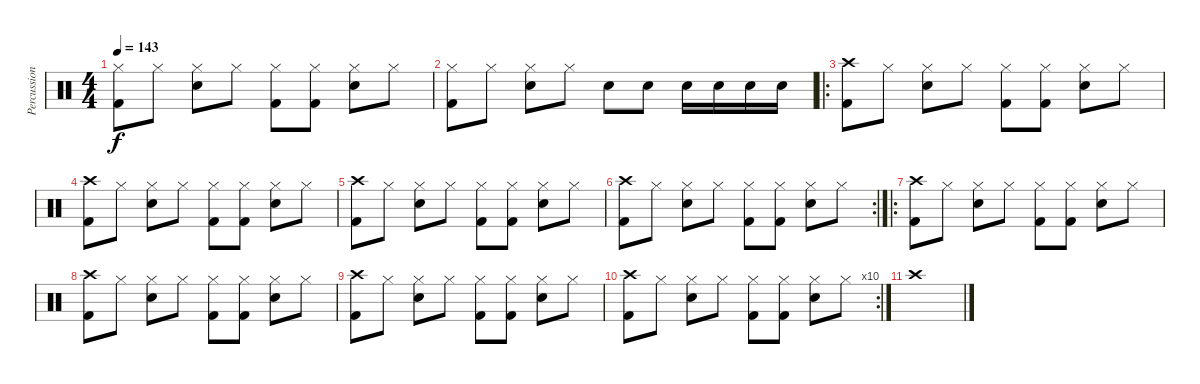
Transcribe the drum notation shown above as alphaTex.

\track ("Percussion" "Percussion") {instrument percussion}
\staff {score}
\articulation defaults
\ts (4 4)
\tempo 143
\clef neutral
\ks c
("Hi-Hat (closed)" "Kick (hit) 2").8{dy f} "Hi-Hat (closed)".8 ("Hi-Hat (closed)" "Snare (hit) 2").8 "Hi-Hat (closed)".8 ("Hi-Hat (closed)" "Kick (hit) 2").8 ("Hi-Hat (closed)" "Kick (hit) 2").8 ("Hi-Hat (closed)" "Snare (hit) 2").8 "Hi-Hat (closed)".8 |
("Hi-Hat (closed)" "Kick (hit) 2").8 "Hi-Hat (closed)".8 ("Hi-Hat (closed)" "Snare (hit) 2").8 "Hi-Hat (closed)".8 "Snare (hit) 2".8 "Snare (hit) 2".8 "Snare (hit) 2".16 "Snare (hit) 2".16 "Snare (hit) 2".16 "Snare (hit) 2".16 |
\ro
("Crash high (hit)" "Kick (hit) 2").8 "Hi-Hat (closed)".8 ("Hi-Hat (closed)" "Snare (hit) 2").8 "Hi-Hat (closed)".8 ("Hi-Hat (closed)" "Kick (hit) 2").8 ("Hi-Hat (closed)" "Kick (hit) 2").8 ("Hi-Hat (closed)" "Snare (hit) 2").8 "Hi-Hat (closed)".8 |
("Crash high (hit)" "Kick (hit) 2").8 "Hi-Hat (closed)".8 ("Hi-Hat (closed)" "Snare (hit) 2").8 "Hi-Hat (closed)".8 ("Hi-Hat (closed)" "Kick (hit) 2").8 ("Hi-Hat (closed)" "Kick (hit) 2").8 ("Hi-Hat (closed)" "Snare (hit) 2").8 "Hi-Hat (closed)".8 |
("Crash high (hit)" "Kick (hit) 2").8 "Hi-Hat (closed)".8 ("Hi-Hat (closed)" "Snare (hit) 2").8 "Hi-Hat (closed)".8 ("Hi-Hat (closed)" "Kick (hit) 2").8 ("Hi-Hat (closed)" "Kick (hit) 2").8 ("Hi-Hat (closed)" "Snare (hit) 2").8 "Hi-Hat (closed)".8 |
\rc 2
("Crash high (hit)" "Kick (hit) 2").8 "Hi-Hat (closed)".8 ("Hi-Hat (closed)" "Snare (hit) 2").8 "Hi-Hat (closed)".8 ("Hi-Hat (closed)" "Kick (hit) 2").8 ("Hi-Hat (closed)" "Kick (hit) 2").8 ("Hi-Hat (closed)" "Snare (hit) 2").8 "Hi-Hat (closed)".8 |
\ro
("Crash high (hit)" "Kick (hit) 2").8 "Hi-Hat (closed)".8 ("Hi-Hat (closed)" "Snare (hit) 2").8 "Hi-Hat (closed)".8 ("Hi-Hat (closed)" "Kick (hit) 2").8 ("Hi-Hat (closed)" "Kick (hit) 2").8 ("Hi-Hat (closed)" "Snare (hit) 2").8 "Hi-Hat (closed)".8 |
("Crash high (hit)" "Kick (hit) 2").8 "Hi-Hat (closed)".8 ("Hi-Hat (closed)" "Snare (hit) 2").8 "Hi-Hat (closed)".8 ("Hi-Hat (closed)" "Kick (hit) 2").8 ("Hi-Hat (closed)" "Kick (hit) 2").8 ("Hi-Hat (closed)" "Snare (hit) 2").8 "Hi-Hat (closed)".8 |
("Crash high (hit)" "Kick (hit) 2").8 "Hi-Hat (closed)".8 ("Hi-Hat (closed)" "Snare (hit) 2").8 "Hi-Hat (closed)".8 ("Hi-Hat (closed)" "Kick (hit) 2").8 ("Hi-Hat (closed)" "Kick (hit) 2").8 ("Hi-Hat (closed)" "Snare (hit) 2").8 "Hi-Hat (closed)".8 |
\rc 10
("Crash high (hit)" "Kick (hit) 2").8 "Hi-Hat (closed)".8 ("Hi-Hat (closed)" "Snare (hit) 2").8 "Hi-Hat (closed)".8 ("Hi-Hat (closed)" "Kick (hit) 2").8 ("Hi-Hat (closed)" "Kick (hit) 2").8 ("Hi-Hat (closed)" "Snare (hit) 2").8 "Hi-Hat (closed)".8 |
"Crash high (hit)".1
